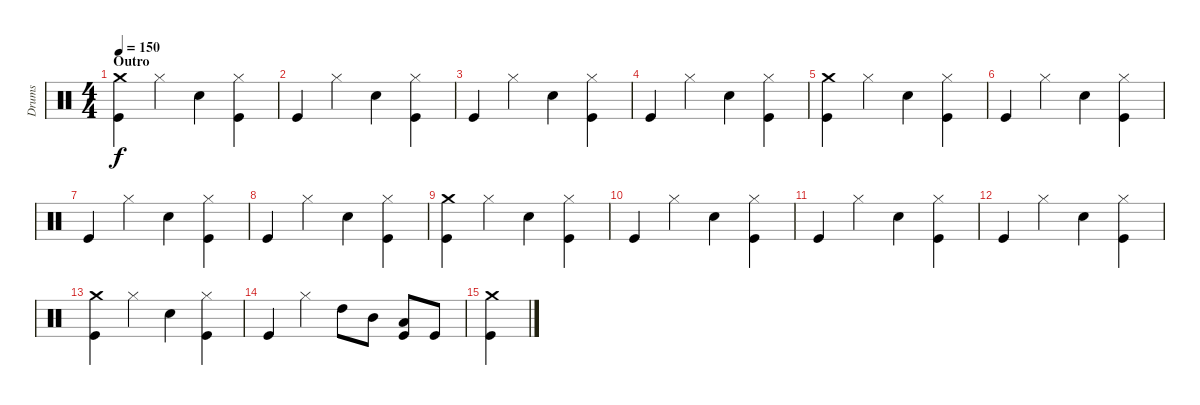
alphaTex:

\track ("Drums" "Drums") {instrument percussion}
\staff {score}
\articulation defaults
\ts (4 4)
\section ("" "Outro")
\tempo 150
\clef neutral
\ks c
("Crash medium (hit)" "Kick (hit)").4{dy f} "Hi-Hat (closed)".4 "Electric Snare (hit)".4 ("Hi-Hat (closed)" "Kick (hit)").4 |
"Kick (hit)".4 "Hi-Hat (closed)".4 "Electric Snare (hit)".4 ("Hi-Hat (closed)" "Kick (hit)").4 |
"Kick (hit)".4 "Hi-Hat (closed)".4 "Electric Snare (hit)".4 ("Hi-Hat (closed)" "Kick (hit)").4 |
"Kick (hit)".4 "Hi-Hat (closed)".4 "Electric Snare (hit)".4 ("Hi-Hat (closed)" "Kick (hit)").4 |
("Crash medium (hit)" "Kick (hit)").4 "Hi-Hat (closed)".4 "Electric Snare (hit)".4 ("Hi-Hat (closed)" "Kick (hit)").4 |
"Kick (hit)".4 "Hi-Hat (closed)".4 "Electric Snare (hit)".4 ("Hi-Hat (closed)" "Kick (hit)").4 |
"Kick (hit)".4 "Hi-Hat (closed)".4 "Electric Snare (hit)".4 ("Hi-Hat (closed)" "Kick (hit)").4 |
"Kick (hit)".4 "Hi-Hat (closed)".4 "Electric Snare (hit)".4 ("Hi-Hat (closed)" "Kick (hit)").4 |
("Crash medium (hit)" "Kick (hit)").4 "Hi-Hat (closed)".4 "Electric Snare (hit)".4 ("Hi-Hat (closed)" "Kick (hit)").4 |
"Kick (hit)".4 "Hi-Hat (closed)".4 "Electric Snare (hit)".4 ("Hi-Hat (closed)" "Kick (hit)").4 |
"Kick (hit)".4 "Hi-Hat (closed)".4 "Electric Snare (hit)".4 ("Hi-Hat (closed)" "Kick (hit)").4 |
"Kick (hit)".4 "Hi-Hat (closed)".4 "Electric Snare (hit)".4 ("Hi-Hat (closed)" "Kick (hit)").4 |
("Crash medium (hit)" "Kick (hit)").4 "Hi-Hat (closed)".4 "Electric Snare (hit)".4 ("Hi-Hat (closed)" "Kick (hit)").4 |
"Kick (hit)".4 "Hi-Hat (closed)".4 "High Tom (hit)".8 "Mid Tom (hit)".8 ("Low Floor Tom (hit)" "Kick (hit)").8 "Kick (hit)".8 |
("Crash medium (hit)" "Kick (hit)").4
